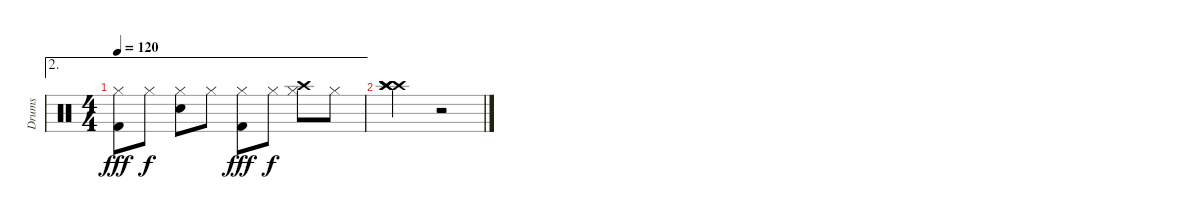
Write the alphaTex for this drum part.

\track ("Drums" "Drums") {instrument percussion}
\staff {score}
\articulation defaults
\ae 2
\ts (4 4)
\tempo 120
\clef neutral
\ks c
("Kick (hit) 2" "Hi-Hat (closed)").8{dy fff} "Hi-Hat (closed)".8{dy f} ("Electric Snare (hit)" "Hi-Hat (closed)").8 "Hi-Hat (closed)".8 ("Kick (hit) 2" "Hi-Hat (closed)").8{dy fff} "Hi-Hat (closed)".8{dy f} ("Crash high (hit)" "Hi-Hat (closed)").8 "Hi-Hat (closed)".8 |
("Crash high (hit)" "Crash high (hit)" "Crash high (hit)" "Crash high (hit)").2 r.2
